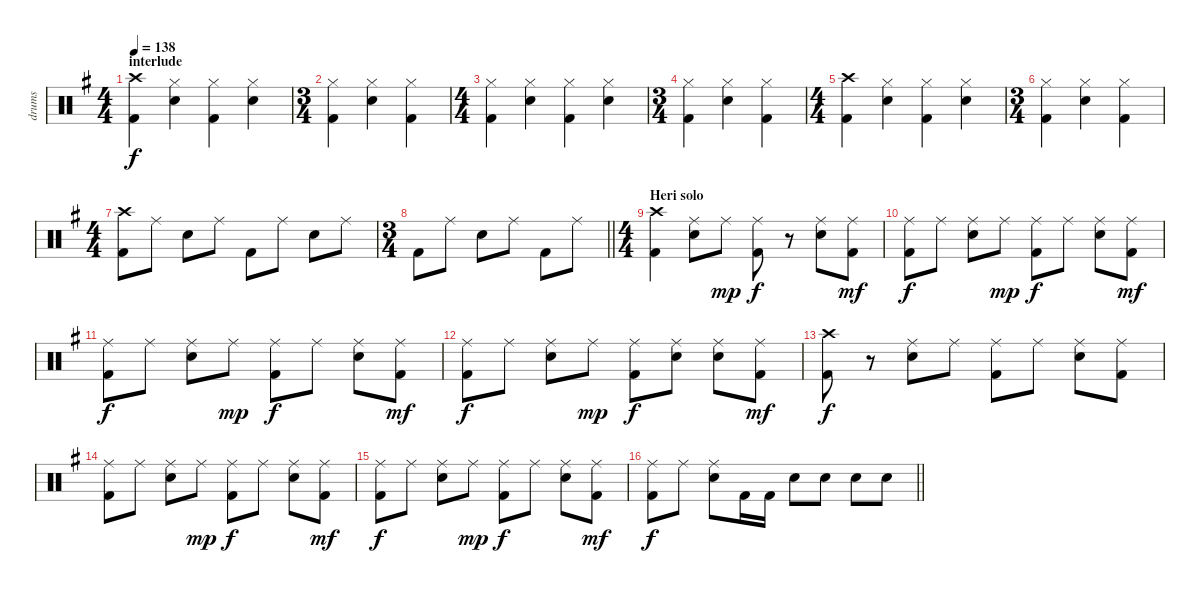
\track ("drums" "drums") {instrument percussion}
\staff {score}
\articulation defaults
\ts (4 4)
\section ("" "interlude")
\tempo 138
\clef neutral
\ks eminor
("Crash high (hit)" "Kick (hit) 2").4{dy f} ("Hi-Hat (closed)" "Snare (hit) 2").4 ("Hi-Hat (closed)" "Kick (hit) 2").4 ("Hi-Hat (closed)" "Snare (hit) 2").4 |
\ts (3 4)
("Hi-Hat (closed)" "Kick (hit) 2").4 ("Hi-Hat (closed)" "Snare (hit) 2").4 ("Hi-Hat (closed)" "Kick (hit) 2").4 |
\ts (4 4)
("Hi-Hat (closed)" "Kick (hit) 2").4 ("Hi-Hat (closed)" "Snare (hit) 2").4 ("Hi-Hat (closed)" "Kick (hit) 2").4 ("Hi-Hat (closed)" "Snare (hit) 2").4 |
\ts (3 4)
("Hi-Hat (closed)" "Kick (hit) 2").4 ("Hi-Hat (closed)" "Snare (hit) 2").4 ("Hi-Hat (closed)" "Kick (hit) 2").4 |
\ts (4 4)
("Crash high (hit)" "Kick (hit) 2").4 ("Hi-Hat (closed)" "Snare (hit) 2").4 ("Hi-Hat (closed)" "Kick (hit) 2").4 ("Hi-Hat (closed)" "Snare (hit) 2").4 |
\ts (3 4)
("Hi-Hat (closed)" "Kick (hit) 2").4 ("Hi-Hat (closed)" "Snare (hit) 2").4 ("Hi-Hat (closed)" "Kick (hit) 2").4 |
\ts (4 4)
("Crash high (hit)" "Kick (hit) 2").8 "Ride (middle)".8 "Snare (hit) 2".8 "Ride (middle)".8 "Kick (hit) 2".8 "Ride (middle)".8 "Snare (hit) 2".8 "Ride (middle)".8 |
\ts (3 4)
\barLineRight lightlight "Kick (hit) 2".8 "Ride (middle)".8 "Snare (hit) 2".8 "Ride (middle)".8 "Kick (hit) 2".8 "Ride (middle)".8
|
\ts (4 4)
\section ("" "Heri solo")
("Crash high (hit)" "Kick (hit) 2").4 ("Ride (middle)" "Snare (hit) 2").8 "Ride (middle)".8{dy mp} ("Ride (middle)" "Kick (hit) 2").8{dy f} r.8 ("Ride (middle)" "Snare (hit) 2").8 ("Ride (middle)" "Kick (hit) 2").8{dy mf} |
("Ride (middle)" "Kick (hit) 2").8{dy f} "Ride (middle)".8 ("Ride (middle)" "Snare (hit) 2").8 "Ride (middle)".8{dy mp} ("Ride (middle)" "Kick (hit) 2").8{dy f} "Ride (middle)".8 ("Ride (middle)" "Snare (hit) 2").8 ("Ride (middle)" "Kick (hit) 2").8{dy mf} |
("Ride (middle)" "Kick (hit) 2").8{dy f} "Ride (middle)".8 ("Ride (middle)" "Snare (hit) 2").8 "Ride (middle)".8{dy mp} ("Ride (middle)" "Kick (hit) 2").8{dy f} "Ride (middle)".8 ("Ride (middle)" "Snare (hit) 2").8 ("Ride (middle)" "Kick (hit) 2").8{dy mf} |
("Ride (middle)" "Kick (hit) 2").8{dy f} "Ride (middle)".8 ("Ride (middle)" "Snare (hit) 2").8 "Ride (middle)".8{dy mp} ("Ride (middle)" "Kick (hit) 2").8{dy f} ("Ride (middle)" "Snare (hit) 2").8 ("Ride (middle)" "Snare (hit) 2").8 ("Ride (middle)" "Kick (hit) 2").8{dy mf} |
("Crash high (hit)" "Kick (hit) 2").8{dy f} r.8 ("Ride (middle)" "Snare (hit) 2").8 "Ride (middle)".8 ("Ride (middle)" "Kick (hit) 2").8 "Ride (middle)".8 ("Ride (middle)" "Snare (hit) 2").8 ("Ride (middle)" "Kick (hit) 2").8 |
("Ride (middle)" "Kick (hit) 2").8 "Ride (middle)".8 ("Ride (middle)" "Snare (hit) 2").8 "Ride (middle)".8{dy mp} ("Ride (middle)" "Kick (hit) 2").8{dy f} "Ride (middle)".8 ("Ride (middle)" "Snare (hit) 2").8 ("Ride (middle)" "Kick (hit) 2").8{dy mf} |
("Ride (middle)" "Kick (hit) 2").8{dy f} "Ride (middle)".8 ("Ride (middle)" "Snare (hit) 2").8 "Ride (middle)".8{dy mp} ("Ride (middle)" "Kick (hit) 2").8{dy f} "Ride (middle)".8 ("Ride (middle)" "Snare (hit) 2").8 ("Ride (middle)" "Kick (hit) 2").8{dy mf} |
\barLineRight lightlight
("Ride (middle)" "Kick (hit) 2").8{dy f} "Ride (middle)".8 ("Ride (middle)" "Snare (hit) 2").8 "Kick (hit) 2".16 "Kick (hit) 2".16 "Snare (hit) 2".8 "Snare (hit) 2".8 "Snare (hit) 2".8 "Snare (hit) 2".8
